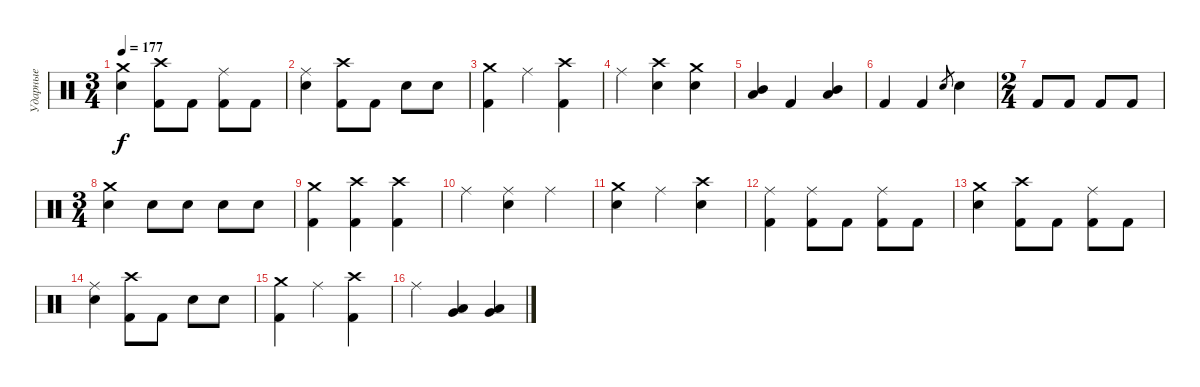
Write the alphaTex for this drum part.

\track ("Ударные" "Ударные") {instrument percussion}
\staff {score}
\articulation defaults
\ts (3 4)
\tempo 177
\clef neutral
\ks c
("Crash medium (hit)" "Snare (hit) 2").4{dy f} ("Crash high (hit)" "Kick (hit) 2").8 "Kick (hit) 2".8 ("Ride (middle)" "Kick (hit) 2").8 "Kick (hit) 2".8 |
("Ride (middle)" "Snare (hit) 2").4 ("Crash high (hit)" "Kick (hit) 2").8 "Kick (hit) 2".8 "Snare (hit) 2".8 "Snare (hit) 2".8 |
("Crash medium (hit)" "Kick (hit) 2").4 "Ride (middle)".4 ("Crash high (hit)" "Kick (hit) 2").4 |
"Ride (middle)".4 ("Crash high (hit)" "Snare (hit) 2").4 ("Crash medium (hit)" "Snare (hit) 2").4 |
("Mid Tom (hit)" "Low Tom (hit)").4 "Kick (hit) 2".4 ("Mid Tom (hit)" "Low Tom (hit)").4 |
"Kick (hit) 2".4 "Kick (hit) 2".4 "Snare (hit) 2".8{gr} "Snare (hit) 2".4 |
\ts (2 4)
"Kick (hit) 2".8 "Kick (hit) 2".8 "Kick (hit) 2".8 "Kick (hit) 2".8 |
\ts (3 4)
("Crash medium (hit)" "Snare (hit) 2").4 "Snare (hit) 2".8 "Snare (hit) 2".8 "Snare (hit) 2".8 "Snare (hit) 2".8 |
("Crash medium (hit)" "Kick (hit) 2").4 ("Crash high (hit)" "Kick (hit) 2").4 ("Crash high (hit)" "Kick (hit) 2").4 |
"Ride (middle)".4 ("Ride (middle)" "Snare (hit) 2").4 "Ride (middle)".4 |
("Crash medium (hit)" "Snare (hit) 2").4 "Ride (middle)".4 ("Crash high (hit)" "Snare (hit) 2").4 |
("Ride (middle)" "Kick (hit) 2").4 ("Ride (middle)" "Kick (hit) 2").8 "Kick (hit) 2".8 ("Ride (middle)" "Kick (hit) 2").8 "Kick (hit) 2".8 |
("Crash medium (hit)" "Snare (hit) 2").4 ("Crash high (hit)" "Kick (hit) 2").8 "Kick (hit) 2".8 ("Ride (middle)" "Kick (hit) 2").8 "Kick (hit) 2".8 |
("Ride (middle)" "Snare (hit) 2").4 ("Crash high (hit)" "Kick (hit) 2").8 "Kick (hit) 2".8 "Snare (hit) 2".8 "Snare (hit) 2".8 |
("Crash medium (hit)" "Kick (hit) 2").4 "Ride (middle)".4 ("Crash high (hit)" "Kick (hit) 2").4 |
"Ride (middle)".4 ("Low Tom (hit)" "Very Low Tom (hit)").4 ("Low Tom (hit)" "Very Low Tom (hit)").4
